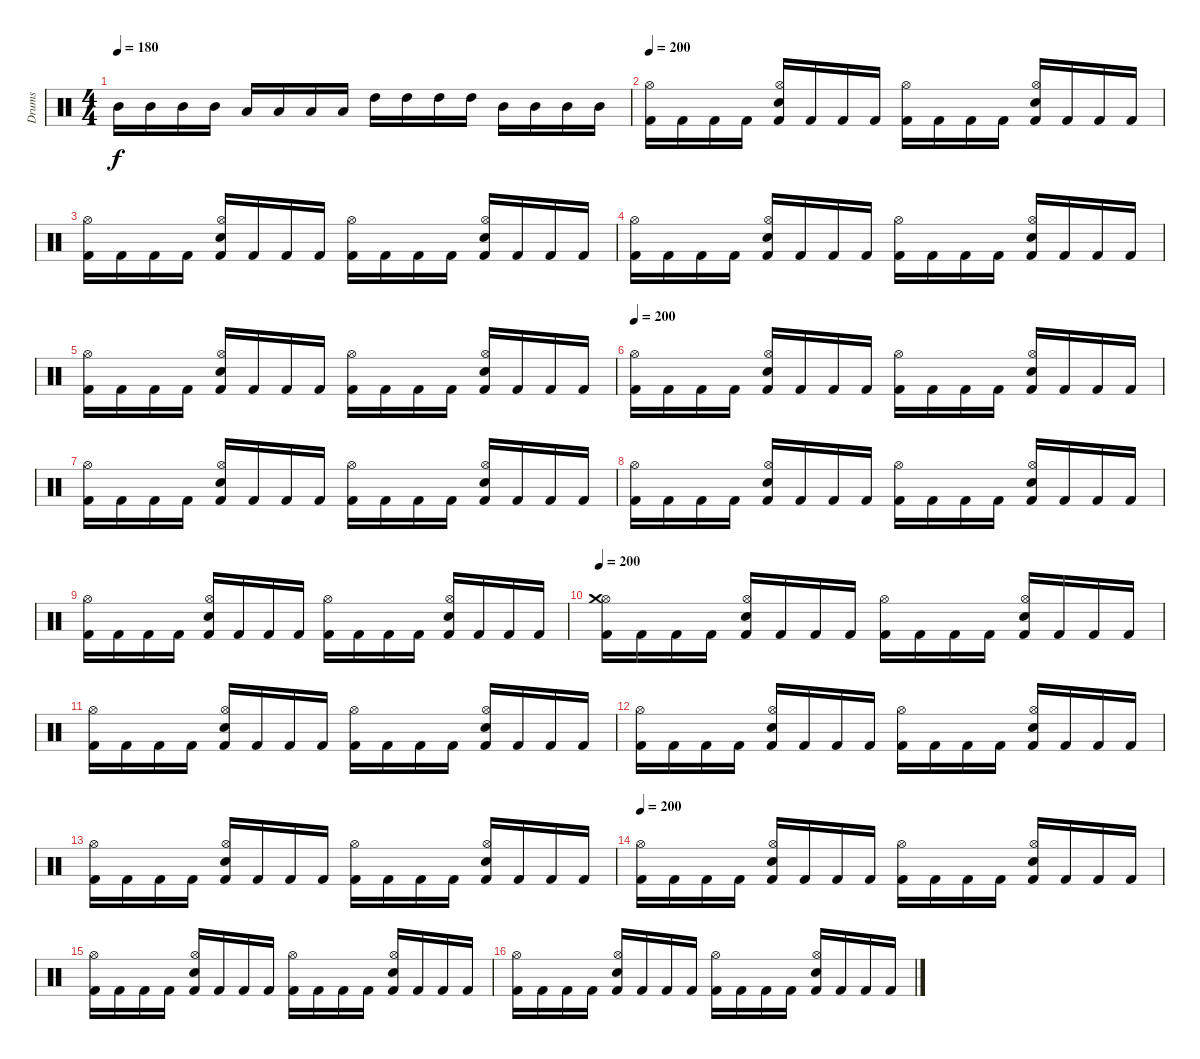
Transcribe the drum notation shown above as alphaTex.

\track ("Drums" "Drums") {instrument percussion}
\staff {score}
\articulation defaults
\ts (4 4)
\tempo 180
\clef neutral
\ks c "Mid Tom (hit)".16{dy f} "Mid Tom (hit)".16 "Mid Tom (hit)".16 "Mid Tom (hit)".16 "Low Tom (hit)".16 "Low Tom (hit)".16 "Low Tom (hit)".16 "Low Tom (hit)".16 "High Tom (hit)".16 "High Tom (hit)".16 "High Tom (hit)".16 "High Tom (hit)".16 "Mid Tom (hit)".16 "Mid Tom (hit)".16 "Mid Tom (hit)".16 "Mid Tom (hit)".16
|
\tempo 200
("Kick (hit) 2" "Hi-Hat (open)").16 "Kick (hit) 2".16 "Kick (hit) 2".16 "Kick (hit) 2".16 ("Kick (hit) 2" "Snare (hit) 2" "Hi-Hat (open)").16 "Kick (hit) 2".16 "Kick (hit) 2".16 "Kick (hit) 2".16 ("Kick (hit) 2" "Hi-Hat (open)").16 "Kick (hit) 2".16 "Kick (hit) 2".16 "Kick (hit) 2".16 ("Kick (hit) 2" "Snare (hit) 2" "Hi-Hat (open)").16 "Kick (hit) 2".16 "Kick (hit) 2".16 "Kick (hit) 2".16 |
("Kick (hit) 2" "Hi-Hat (open)").16 "Kick (hit) 2".16 "Kick (hit) 2".16 "Kick (hit) 2".16 ("Kick (hit) 2" "Snare (hit) 2" "Hi-Hat (open)").16 "Kick (hit) 2".16 "Kick (hit) 2".16 "Kick (hit) 2".16 ("Kick (hit) 2" "Hi-Hat (open)").16 "Kick (hit) 2".16 "Kick (hit) 2".16 "Kick (hit) 2".16 ("Kick (hit) 2" "Snare (hit) 2" "Hi-Hat (open)").16 "Kick (hit) 2".16 "Kick (hit) 2".16 "Kick (hit) 2".16 |
("Kick (hit) 2" "Hi-Hat (open)").16 "Kick (hit) 2".16 "Kick (hit) 2".16 "Kick (hit) 2".16 ("Kick (hit) 2" "Snare (hit) 2" "Hi-Hat (open)").16 "Kick (hit) 2".16 "Kick (hit) 2".16 "Kick (hit) 2".16 ("Kick (hit) 2" "Hi-Hat (open)").16 "Kick (hit) 2".16 "Kick (hit) 2".16 "Kick (hit) 2".16 ("Kick (hit) 2" "Snare (hit) 2" "Hi-Hat (open)").16 "Kick (hit) 2".16 "Kick (hit) 2".16 "Kick (hit) 2".16 |
("Kick (hit) 2" "Hi-Hat (open)").16 "Kick (hit) 2".16 "Kick (hit) 2".16 "Kick (hit) 2".16 ("Kick (hit) 2" "Snare (hit) 2" "Hi-Hat (open)").16 "Kick (hit) 2".16 "Kick (hit) 2".16 "Kick (hit) 2".16 ("Kick (hit) 2" "Hi-Hat (open)").16 "Kick (hit) 2".16 "Kick (hit) 2".16 "Kick (hit) 2".16 ("Kick (hit) 2" "Snare (hit) 2" "Hi-Hat (open)").16 "Kick (hit) 2".16 "Kick (hit) 2".16 "Kick (hit) 2".16 |
\tempo 200
("Kick (hit) 2" "Hi-Hat (open)").16 "Kick (hit) 2".16 "Kick (hit) 2".16 "Kick (hit) 2".16 ("Kick (hit) 2" "Snare (hit) 2" "Hi-Hat (open)").16 "Kick (hit) 2".16 "Kick (hit) 2".16 "Kick (hit) 2".16 ("Kick (hit) 2" "Hi-Hat (open)").16 "Kick (hit) 2".16 "Kick (hit) 2".16 "Kick (hit) 2".16 ("Kick (hit) 2" "Snare (hit) 2" "Hi-Hat (open)").16 "Kick (hit) 2".16 "Kick (hit) 2".16 "Kick (hit) 2".16 |
("Kick (hit) 2" "Hi-Hat (open)").16 "Kick (hit) 2".16 "Kick (hit) 2".16 "Kick (hit) 2".16 ("Kick (hit) 2" "Snare (hit) 2" "Hi-Hat (open)").16 "Kick (hit) 2".16 "Kick (hit) 2".16 "Kick (hit) 2".16 ("Kick (hit) 2" "Hi-Hat (open)").16 "Kick (hit) 2".16 "Kick (hit) 2".16 "Kick (hit) 2".16 ("Kick (hit) 2" "Snare (hit) 2" "Hi-Hat (open)").16 "Kick (hit) 2".16 "Kick (hit) 2".16 "Kick (hit) 2".16 |
("Kick (hit) 2" "Hi-Hat (open)").16 "Kick (hit) 2".16 "Kick (hit) 2".16 "Kick (hit) 2".16 ("Kick (hit) 2" "Snare (hit) 2" "Hi-Hat (open)").16 "Kick (hit) 2".16 "Kick (hit) 2".16 "Kick (hit) 2".16 ("Kick (hit) 2" "Hi-Hat (open)").16 "Kick (hit) 2".16 "Kick (hit) 2".16 "Kick (hit) 2".16 ("Kick (hit) 2" "Snare (hit) 2" "Hi-Hat (open)").16 "Kick (hit) 2".16 "Kick (hit) 2".16 "Kick (hit) 2".16 |
("Kick (hit) 2" "Hi-Hat (open)").16 "Kick (hit) 2".16 "Kick (hit) 2".16 "Kick (hit) 2".16 ("Kick (hit) 2" "Snare (hit) 2" "Hi-Hat (open)").16 "Kick (hit) 2".16 "Kick (hit) 2".16 "Kick (hit) 2".16 ("Kick (hit) 2" "Hi-Hat (open)").16 "Kick (hit) 2".16 "Kick (hit) 2".16 "Kick (hit) 2".16 ("Kick (hit) 2" "Snare (hit) 2" "Hi-Hat (open)").16 "Kick (hit) 2".16 "Kick (hit) 2".16 "Kick (hit) 2".16 |
\tempo 200
("Kick (hit) 2" "Hi-Hat (open)" "Crash medium (hit)").16 "Kick (hit) 2".16 "Kick (hit) 2".16 "Kick (hit) 2".16 ("Kick (hit) 2" "Snare (hit) 2" "Hi-Hat (open)").16 "Kick (hit) 2".16 "Kick (hit) 2".16 "Kick (hit) 2".16 ("Kick (hit) 2" "Hi-Hat (open)").16 "Kick (hit) 2".16 "Kick (hit) 2".16 "Kick (hit) 2".16 ("Kick (hit) 2" "Snare (hit) 2" "Hi-Hat (open)").16 "Kick (hit) 2".16 "Kick (hit) 2".16 "Kick (hit) 2".16 |
("Kick (hit) 2" "Hi-Hat (open)").16 "Kick (hit) 2".16 "Kick (hit) 2".16 "Kick (hit) 2".16 ("Kick (hit) 2" "Snare (hit) 2" "Hi-Hat (open)").16 "Kick (hit) 2".16 "Kick (hit) 2".16 "Kick (hit) 2".16 ("Kick (hit) 2" "Hi-Hat (open)").16 "Kick (hit) 2".16 "Kick (hit) 2".16 "Kick (hit) 2".16 ("Kick (hit) 2" "Snare (hit) 2" "Hi-Hat (open)").16 "Kick (hit) 2".16 "Kick (hit) 2".16 "Kick (hit) 2".16 |
("Kick (hit) 2" "Hi-Hat (open)").16 "Kick (hit) 2".16 "Kick (hit) 2".16 "Kick (hit) 2".16 ("Kick (hit) 2" "Snare (hit) 2" "Hi-Hat (open)").16 "Kick (hit) 2".16 "Kick (hit) 2".16 "Kick (hit) 2".16 ("Kick (hit) 2" "Hi-Hat (open)").16 "Kick (hit) 2".16 "Kick (hit) 2".16 "Kick (hit) 2".16 ("Kick (hit) 2" "Snare (hit) 2" "Hi-Hat (open)").16 "Kick (hit) 2".16 "Kick (hit) 2".16 "Kick (hit) 2".16 |
("Kick (hit) 2" "Hi-Hat (open)").16 "Kick (hit) 2".16 "Kick (hit) 2".16 "Kick (hit) 2".16 ("Kick (hit) 2" "Snare (hit) 2" "Hi-Hat (open)").16 "Kick (hit) 2".16 "Kick (hit) 2".16 "Kick (hit) 2".16 ("Kick (hit) 2" "Hi-Hat (open)").16 "Kick (hit) 2".16 "Kick (hit) 2".16 "Kick (hit) 2".16 ("Kick (hit) 2" "Snare (hit) 2" "Hi-Hat (open)").16 "Kick (hit) 2".16 "Kick (hit) 2".16 "Kick (hit) 2".16 |
\tempo 200
("Kick (hit) 2" "Hi-Hat (open)").16 "Kick (hit) 2".16 "Kick (hit) 2".16 "Kick (hit) 2".16 ("Kick (hit) 2" "Snare (hit) 2" "Hi-Hat (open)").16 "Kick (hit) 2".16 "Kick (hit) 2".16 "Kick (hit) 2".16 ("Kick (hit) 2" "Hi-Hat (open)").16 "Kick (hit) 2".16 "Kick (hit) 2".16 "Kick (hit) 2".16 ("Kick (hit) 2" "Snare (hit) 2" "Hi-Hat (open)").16 "Kick (hit) 2".16 "Kick (hit) 2".16 "Kick (hit) 2".16 |
("Kick (hit) 2" "Hi-Hat (open)").16 "Kick (hit) 2".16 "Kick (hit) 2".16 "Kick (hit) 2".16 ("Kick (hit) 2" "Snare (hit) 2" "Hi-Hat (open)").16 "Kick (hit) 2".16 "Kick (hit) 2".16 "Kick (hit) 2".16 ("Kick (hit) 2" "Hi-Hat (open)").16 "Kick (hit) 2".16 "Kick (hit) 2".16 "Kick (hit) 2".16 ("Kick (hit) 2" "Snare (hit) 2" "Hi-Hat (open)").16 "Kick (hit) 2".16 "Kick (hit) 2".16 "Kick (hit) 2".16 |
("Kick (hit) 2" "Hi-Hat (open)").16 "Kick (hit) 2".16 "Kick (hit) 2".16 "Kick (hit) 2".16 ("Kick (hit) 2" "Snare (hit) 2" "Hi-Hat (open)").16 "Kick (hit) 2".16 "Kick (hit) 2".16 "Kick (hit) 2".16 ("Kick (hit) 2" "Hi-Hat (open)").16 "Kick (hit) 2".16 "Kick (hit) 2".16 "Kick (hit) 2".16 ("Kick (hit) 2" "Snare (hit) 2" "Hi-Hat (open)").16 "Kick (hit) 2".16 "Kick (hit) 2".16 "Kick (hit) 2".16
